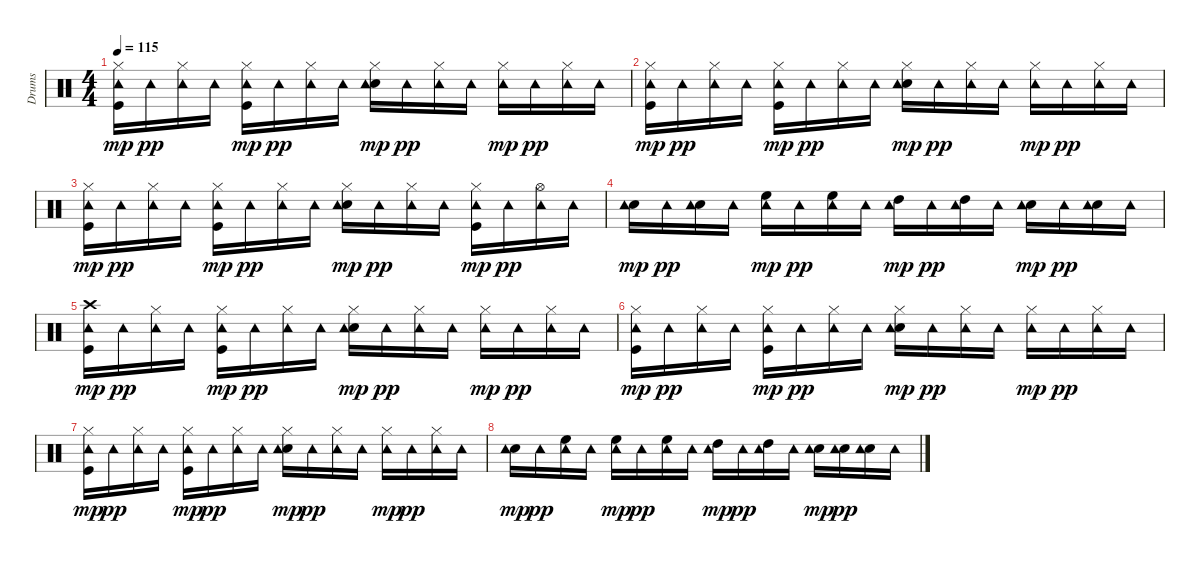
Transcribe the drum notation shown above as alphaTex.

\track ("Drums" "Drums") {instrument percussion}
\staff {score}
\articulation defaults
\ts (4 4)
\tempo 115
\clef neutral
\ks c
("Hi-Hat (closed)" "Tambourine (hit)" "Kick (hit)").16{dy mp volume 10} "Tambourine (hit)".16{dy pp} ("Hi-Hat (closed)" "Tambourine (hit)").16 "Tambourine (hit)".16 ("Hi-Hat (closed)" "Tambourine (hit)" "Kick (hit)").16{dy mp} "Tambourine (hit)".16{dy pp} ("Hi-Hat (closed)" "Tambourine (hit)").16 "Tambourine (hit)".16 ("Hi-Hat (closed)" "Snare (hit) 2" "Tambourine (hit)").16{dy mp} "Tambourine (hit)".16{dy pp} ("Hi-Hat (closed)" "Tambourine (hit)").16 "Tambourine (hit)".16 ("Hi-Hat (closed)" "Tambourine (hit)").16{dy mp} "Tambourine (hit)".16{dy pp} ("Hi-Hat (closed)" "Tambourine (hit)").16 "Tambourine (hit)".16 |
("Hi-Hat (closed)" "Tambourine (hit)" "Kick (hit)").16{dy mp} "Tambourine (hit)".16{dy pp} ("Hi-Hat (closed)" "Tambourine (hit)").16 "Tambourine (hit)".16 ("Hi-Hat (closed)" "Tambourine (hit)" "Kick (hit)").16{dy mp} "Tambourine (hit)".16{dy pp} ("Hi-Hat (closed)" "Tambourine (hit)").16 "Tambourine (hit)".16 ("Hi-Hat (closed)" "Snare (hit) 2" "Tambourine (hit)").16{dy mp} "Tambourine (hit)".16{dy pp} ("Hi-Hat (closed)" "Tambourine (hit)").16 "Tambourine (hit)".16 ("Hi-Hat (closed)" "Tambourine (hit)").16{dy mp} "Tambourine (hit)".16{dy pp} ("Hi-Hat (closed)" "Tambourine (hit)").16 "Tambourine (hit)".16 |
("Hi-Hat (closed)" "Tambourine (hit)" "Kick (hit)").16{dy mp volume 6} "Tambourine (hit)".16{dy pp} ("Hi-Hat (closed)" "Tambourine (hit)").16 "Tambourine (hit)".16 ("Hi-Hat (closed)" "Tambourine (hit)" "Kick (hit)").16{dy mp} "Tambourine (hit)".16{dy pp} ("Hi-Hat (closed)" "Tambourine (hit)").16 "Tambourine (hit)".16 ("Hi-Hat (closed)" "Snare (hit) 2" "Tambourine (hit)").16{dy mp} "Tambourine (hit)".16{dy pp} ("Hi-Hat (closed)" "Tambourine (hit)").16 "Tambourine (hit)".16 ("Hi-Hat (closed)" "Tambourine (hit)" "Kick (hit)").16{dy mp} "Tambourine (hit)".16{dy pp} ("Hi-Hat (open)" "Tambourine (hit)").16 "Tambourine (hit)".16 |
("Snare (hit) 2" "Tambourine (hit)").16{dy mp} "Tambourine (hit)".16{dy pp} ("Snare (hit) 2" "Tambourine (hit)").16 "Tambourine (hit)".16 ("High Floor Tom (hit)" "Tambourine (hit)").16{dy mp} "Tambourine (hit)".16{dy pp} ("High Floor Tom (hit)" "Tambourine (hit)").16 "Tambourine (hit)".16 ("High Tom (hit)" "Tambourine (hit)").16{dy mp} "Tambourine (hit)".16{dy pp} ("High Tom (hit)" "Tambourine (hit)").16 "Tambourine (hit)".16 ("Snare (hit) 2" "Tambourine (hit)").16{dy mp} "Tambourine (hit)".16{dy pp} ("Snare (hit) 2" "Tambourine (hit)").16 "Tambourine (hit)".16 |
("Crash high (hit)" "Tambourine (hit)" "Kick (hit)").16{dy mp volume 3} "Tambourine (hit)".16{dy pp} ("Hi-Hat (closed)" "Tambourine (hit)").16 "Tambourine (hit)".16 ("Hi-Hat (closed)" "Tambourine (hit)" "Kick (hit)").16{dy mp} "Tambourine (hit)".16{dy pp} ("Hi-Hat (closed)" "Tambourine (hit)").16 "Tambourine (hit)".16 ("Hi-Hat (closed)" "Snare (hit) 2" "Tambourine (hit)").16{dy mp} "Tambourine (hit)".16{dy pp} ("Hi-Hat (closed)" "Tambourine (hit)").16 "Tambourine (hit)".16 ("Hi-Hat (closed)" "Tambourine (hit)").16{dy mp} "Tambourine (hit)".16{dy pp} ("Hi-Hat (closed)" "Tambourine (hit)").16 "Tambourine (hit)".16 |
("Hi-Hat (closed)" "Tambourine (hit)" "Kick (hit)").16{dy mp} "Tambourine (hit)".16{dy pp} ("Hi-Hat (closed)" "Tambourine (hit)").16 "Tambourine (hit)".16 ("Hi-Hat (closed)" "Tambourine (hit)" "Kick (hit)").16{dy mp} "Tambourine (hit)".16{dy pp} ("Hi-Hat (closed)" "Tambourine (hit)").16 "Tambourine (hit)".16 ("Hi-Hat (closed)" "Snare (hit) 2" "Tambourine (hit)").16{dy mp} "Tambourine (hit)".16{dy pp} ("Hi-Hat (closed)" "Tambourine (hit)").16 "Tambourine (hit)".16 ("Hi-Hat (closed)" "Tambourine (hit)").16{dy mp} "Tambourine (hit)".16{dy pp} ("Hi-Hat (closed)" "Tambourine (hit)").16 "Tambourine (hit)".16 |
("Hi-Hat (closed)" "Tambourine (hit)" "Kick (hit)").16{dy mp volume 0} "Tambourine (hit)".16{dy pp} ("Hi-Hat (closed)" "Tambourine (hit)").16 "Tambourine (hit)".16 ("Hi-Hat (closed)" "Tambourine (hit)" "Kick (hit)").16{dy mp} "Tambourine (hit)".16{dy pp} ("Hi-Hat (closed)" "Tambourine (hit)").16 "Tambourine (hit)".16 ("Hi-Hat (closed)" "Snare (hit) 2" "Tambourine (hit)").16{dy mp} "Tambourine (hit)".16{dy pp} ("Hi-Hat (closed)" "Tambourine (hit)").16 "Tambourine (hit)".16 ("Hi-Hat (closed)" "Tambourine (hit)").16{dy mp} "Tambourine (hit)".16{dy pp} ("Hi-Hat (closed)" "Tambourine (hit)").16 "Tambourine (hit)".16 |
("Snare (hit) 2" "Tambourine (hit)").16{dy mp} "Tambourine (hit)".16{dy pp} ("High Floor Tom (hit)" "Tambourine (hit)").16 "Tambourine (hit)".16 ("High Floor Tom (hit)" "Tambourine (hit)").16{dy mp} "Tambourine (hit)".16{dy pp} ("High Floor Tom (hit)" "Tambourine (hit)").16 "Tambourine (hit)".16 ("High Tom (hit)" "Tambourine (hit)").16{dy mp} "Tambourine (hit)".16{dy pp} ("High Tom (hit)" "Tambourine (hit)").16 "Tambourine (hit)".16 ("Snare (hit) 2" "Tambourine (hit)").16{dy mp} ("Snare (hit) 2" "Tambourine (hit)").16{dy pp} ("Snare (hit) 2" "Tambourine (hit)").16 "Tambourine (hit)".16
